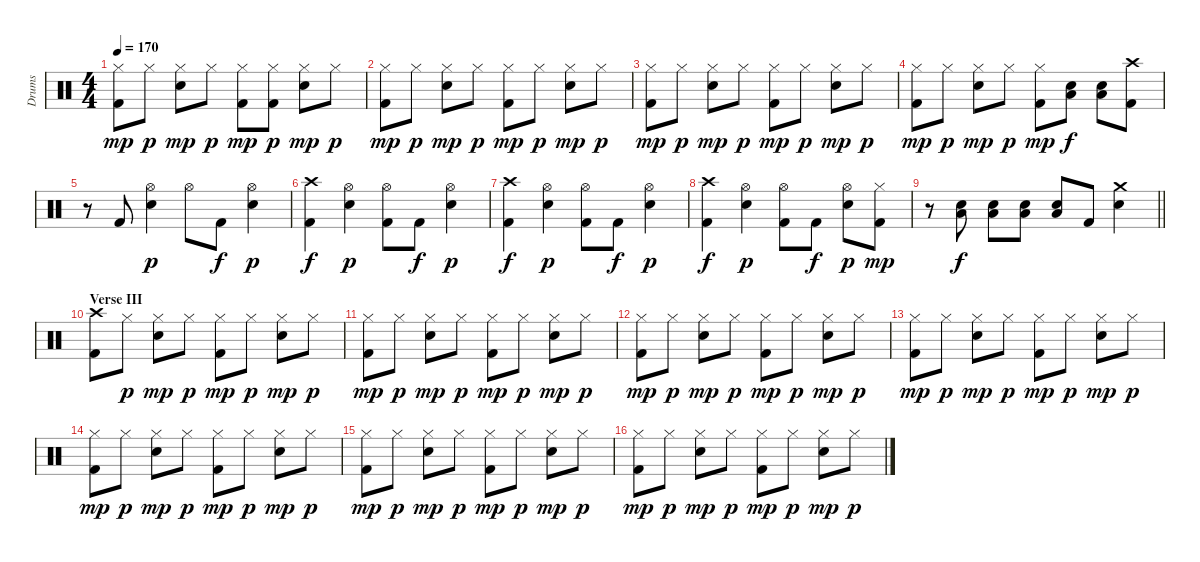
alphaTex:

\track ("Drums" "Drums") {instrument percussion}
\staff {score}
\articulation defaults
\ts (4 4)
\tempo 170
\clef neutral
\ks c
("Hi-Hat (closed)" "Kick (hit) 2").8{dy mp} "Hi-Hat (closed)".8{dy p} ("Hi-Hat (closed)" "Electric Snare (hit)").8{dy mp} "Hi-Hat (closed)".8{dy p} ("Hi-Hat (closed)" "Kick (hit) 2").8{dy mp} ("Hi-Hat (closed)" "Kick (hit) 2").8{dy p} ("Hi-Hat (closed)" "Electric Snare (hit)").8{dy mp} "Hi-Hat (closed)".8{dy p} |
("Hi-Hat (closed)" "Kick (hit) 2").8{dy mp} "Hi-Hat (closed)".8{dy p} ("Hi-Hat (closed)" "Electric Snare (hit)").8{dy mp} "Hi-Hat (closed)".8{dy p} ("Hi-Hat (closed)" "Kick (hit) 2").8{dy mp} "Hi-Hat (closed)".8{dy p} ("Hi-Hat (closed)" "Electric Snare (hit)").8{dy mp} "Hi-Hat (closed)".8{dy p} |
("Hi-Hat (closed)" "Kick (hit) 2").8{dy mp} "Hi-Hat (closed)".8{dy p} ("Hi-Hat (closed)" "Electric Snare (hit)").8{dy mp} "Hi-Hat (closed)".8{dy p} ("Hi-Hat (closed)" "Kick (hit) 2").8{dy mp} "Hi-Hat (closed)".8{dy p} ("Hi-Hat (closed)" "Electric Snare (hit)").8{dy mp} "Hi-Hat (closed)".8{dy p} |
("Hi-Hat (closed)" "Kick (hit) 2").8{dy mp} "Hi-Hat (closed)".8{dy p} ("Hi-Hat (closed)" "Electric Snare (hit)").8{dy mp} "Hi-Hat (closed)".8{dy p} ("Hi-Hat (closed)" "Kick (hit) 2").8{dy mp} ("Electric Snare (hit)" "Low Tom (hit)").8{dy f} ("Electric Snare (hit)" "Low Tom (hit)").8 ("Crash high (hit)" "Kick (hit) 2").8 |
r.8 "Kick (hit) 2".8 ("Hi-Hat (open)" "Electric Snare (hit)").4{dy p} "Hi-Hat (open)".8 "Kick (hit) 2".8{dy f} ("Hi-Hat (open)" "Electric Snare (hit)").4{dy p} |
("Crash high (hit)" "Kick (hit) 2").4{dy f} ("Hi-Hat (open)" "Electric Snare (hit)").4{dy p} ("Hi-Hat (open)" "Kick (hit) 2").8 "Kick (hit) 2".8{dy f} ("Hi-Hat (open)" "Electric Snare (hit)").4{dy p} |
("Crash high (hit)" "Kick (hit) 2").4{dy f} ("Hi-Hat (open)" "Electric Snare (hit)").4{dy p} ("Hi-Hat (open)" "Kick (hit) 2").8 "Kick (hit) 2".8{dy f} ("Hi-Hat (open)" "Electric Snare (hit)").4{dy p} |
("Crash high (hit)" "Kick (hit) 2").4{dy f} ("Hi-Hat (open)" "Electric Snare (hit)").4{dy p} ("Hi-Hat (open)" "Kick (hit) 2").8 "Kick (hit) 2".8{dy f} ("Hi-Hat (open)" "Electric Snare (hit)").8{dy p} ("Hi-Hat (closed)" "Kick (hit) 2").8{dy mp} |
\barLineRight lightlight
r.8 ("Electric Snare (hit)" "Low Tom (hit)").8{dy f} ("Electric Snare (hit)" "Low Tom (hit)").8 ("Electric Snare (hit)" "Low Tom (hit)").8 ("Electric Snare (hit)" "Low Tom (hit)").8 "Kick (hit) 2".8 ("Crash medium (hit)" "Electric Snare (hit)").4 |
\section ("" "Verse III")
("Crash high (hit)" "Kick (hit) 2").8 "Hi-Hat (closed)".8{dy p} ("Hi-Hat (closed)" "Electric Snare (hit)").8{dy mp} "Hi-Hat (closed)".8{dy p} ("Hi-Hat (closed)" "Kick (hit) 2").8{dy mp} "Hi-Hat (closed)".8{dy p} ("Hi-Hat (closed)" "Electric Snare (hit)").8{dy mp} "Hi-Hat (closed)".8{dy p} |
("Hi-Hat (closed)" "Kick (hit) 2").8{dy mp} "Hi-Hat (closed)".8{dy p} ("Hi-Hat (closed)" "Electric Snare (hit)").8{dy mp} "Hi-Hat (closed)".8{dy p} ("Hi-Hat (closed)" "Kick (hit) 2").8{dy mp} "Hi-Hat (closed)".8{dy p} ("Hi-Hat (closed)" "Electric Snare (hit)").8{dy mp} "Hi-Hat (closed)".8{dy p} |
("Hi-Hat (closed)" "Kick (hit) 2").8{dy mp} "Hi-Hat (closed)".8{dy p} ("Hi-Hat (closed)" "Electric Snare (hit)").8{dy mp} "Hi-Hat (closed)".8{dy p} ("Hi-Hat (closed)" "Kick (hit) 2").8{dy mp} "Hi-Hat (closed)".8{dy p} ("Hi-Hat (closed)" "Electric Snare (hit)").8{dy mp} "Hi-Hat (closed)".8{dy p} |
("Hi-Hat (closed)" "Kick (hit) 2").8{dy mp} "Hi-Hat (closed)".8{dy p} ("Hi-Hat (closed)" "Electric Snare (hit)").8{dy mp} "Hi-Hat (closed)".8{dy p} ("Hi-Hat (closed)" "Kick (hit) 2").8{dy mp} "Hi-Hat (closed)".8{dy p} ("Hi-Hat (closed)" "Electric Snare (hit)").8{dy mp} "Hi-Hat (closed)".8{dy p} |
("Hi-Hat (closed)" "Kick (hit) 2").8{dy mp} "Hi-Hat (closed)".8{dy p} ("Hi-Hat (closed)" "Electric Snare (hit)").8{dy mp} "Hi-Hat (closed)".8{dy p} ("Hi-Hat (closed)" "Kick (hit) 2").8{dy mp} "Hi-Hat (closed)".8{dy p} ("Hi-Hat (closed)" "Electric Snare (hit)").8{dy mp} "Hi-Hat (closed)".8{dy p} |
("Hi-Hat (closed)" "Kick (hit) 2").8{dy mp} "Hi-Hat (closed)".8{dy p} ("Hi-Hat (closed)" "Electric Snare (hit)").8{dy mp} "Hi-Hat (closed)".8{dy p} ("Hi-Hat (closed)" "Kick (hit) 2").8{dy mp} "Hi-Hat (closed)".8{dy p} ("Hi-Hat (closed)" "Electric Snare (hit)").8{dy mp} "Hi-Hat (closed)".8{dy p} |
("Hi-Hat (closed)" "Kick (hit) 2").8{dy mp} "Hi-Hat (closed)".8{dy p} ("Hi-Hat (closed)" "Electric Snare (hit)").8{dy mp} "Hi-Hat (closed)".8{dy p} ("Hi-Hat (closed)" "Kick (hit) 2").8{dy mp} "Hi-Hat (closed)".8{dy p} ("Hi-Hat (closed)" "Electric Snare (hit)").8{dy mp} "Hi-Hat (closed)".8{dy p}
